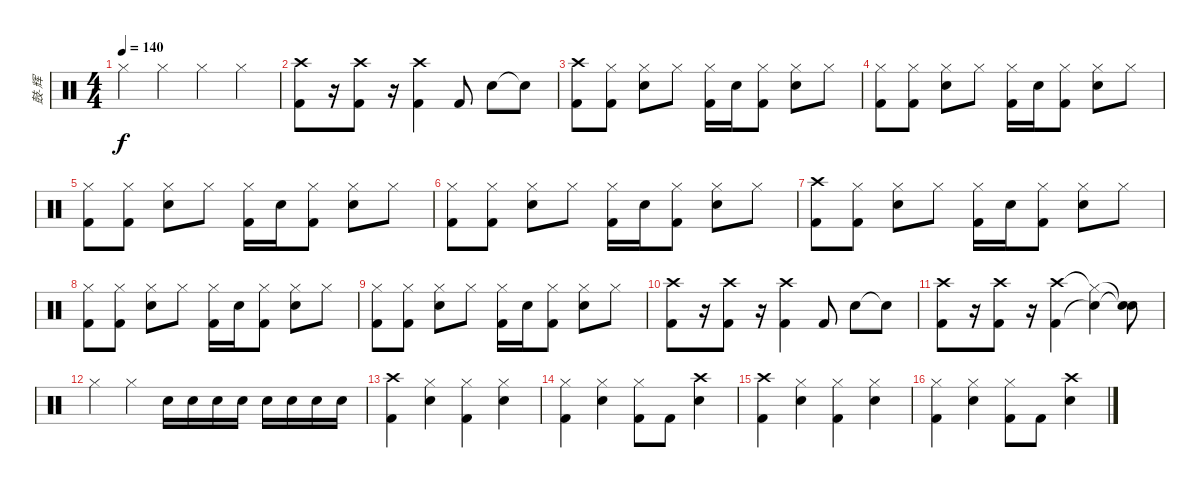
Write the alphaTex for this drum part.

\track ("鼓-辉" "鼓-辉") {instrument percussion}
\staff {score}
\articulation defaults
\ts (4 4)
\tempo 140
\clef neutral
\ks c "Hi-Hat (closed)".4{dy f} "Hi-Hat (closed)".4 "Hi-Hat (closed)".4 "Hi-Hat (closed)".4
|
("Crash high (hit)" "Kick (hit) 2").8 r.16 ("Crash high (hit)" "Kick (hit) 2").8 r.16 ("Crash high (hit)" "Kick (hit) 2").4 "Kick (hit) 2".8 "Snare (hit) 2".8 "Snare (hit) 2"{t}.8 |
("Crash high (hit)" "Kick (hit) 2").8 ("Hi-Hat (closed)" "Kick (hit) 2").8 ("Hi-Hat (closed)" "Snare (hit) 2").8 "Hi-Hat (closed)".8 ("Hi-Hat (closed)" "Kick (hit) 2").16 "Snare (hit) 2".16 ("Hi-Hat (closed)" "Kick (hit) 2").8 ("Hi-Hat (closed)" "Snare (hit) 2").8 "Hi-Hat (closed)".8 |
("Hi-Hat (closed)" "Kick (hit) 2").8 ("Hi-Hat (closed)" "Kick (hit) 2").8 ("Hi-Hat (closed)" "Snare (hit) 2").8 "Hi-Hat (closed)".8 ("Hi-Hat (closed)" "Kick (hit) 2").16 "Snare (hit) 2".16 ("Hi-Hat (closed)" "Kick (hit) 2").8 ("Hi-Hat (closed)" "Snare (hit) 2").8 "Hi-Hat (closed)".8 |
("Hi-Hat (closed)" "Kick (hit) 2").8 ("Hi-Hat (closed)" "Kick (hit) 2").8 ("Hi-Hat (closed)" "Snare (hit) 2").8 "Hi-Hat (closed)".8 ("Hi-Hat (closed)" "Kick (hit) 2").16 "Snare (hit) 2".16 ("Hi-Hat (closed)" "Kick (hit) 2").8 ("Hi-Hat (closed)" "Snare (hit) 2").8 "Hi-Hat (closed)".8 |
("Hi-Hat (closed)" "Kick (hit) 2").8 ("Hi-Hat (closed)" "Kick (hit) 2").8 ("Hi-Hat (closed)" "Snare (hit) 2").8 "Hi-Hat (closed)".8 ("Hi-Hat (closed)" "Kick (hit) 2").16 "Snare (hit) 2".16 ("Hi-Hat (closed)" "Kick (hit) 2").8 ("Hi-Hat (closed)" "Snare (hit) 2").8 "Hi-Hat (closed)".8 |
("Crash high (hit)" "Kick (hit) 2").8 ("Hi-Hat (closed)" "Kick (hit) 2").8 ("Hi-Hat (closed)" "Snare (hit) 2").8 "Hi-Hat (closed)".8 ("Hi-Hat (closed)" "Kick (hit) 2").16 "Snare (hit) 2".16 ("Hi-Hat (closed)" "Kick (hit) 2").8 ("Hi-Hat (closed)" "Snare (hit) 2").8 "Hi-Hat (closed)".8 |
("Hi-Hat (closed)" "Kick (hit) 2").8 ("Hi-Hat (closed)" "Kick (hit) 2").8 ("Hi-Hat (closed)" "Snare (hit) 2").8 "Hi-Hat (closed)".8 ("Hi-Hat (closed)" "Kick (hit) 2").16 "Snare (hit) 2".16 ("Hi-Hat (closed)" "Kick (hit) 2").8 ("Hi-Hat (closed)" "Snare (hit) 2").8 "Hi-Hat (closed)".8 |
("Hi-Hat (closed)" "Kick (hit) 2").8 ("Hi-Hat (closed)" "Kick (hit) 2").8 ("Hi-Hat (closed)" "Snare (hit) 2").8 "Hi-Hat (closed)".8 ("Hi-Hat (closed)" "Kick (hit) 2").16 "Snare (hit) 2".16 ("Hi-Hat (closed)" "Kick (hit) 2").8 ("Hi-Hat (closed)" "Snare (hit) 2").8 "Hi-Hat (closed)".8 |
("Crash high (hit)" "Kick (hit) 2").8 r.16 ("Crash high (hit)" "Kick (hit) 2").8 r.16 ("Crash high (hit)" "Kick (hit) 2").4 "Kick (hit) 2".8 "Snare (hit) 2".8 "Snare (hit) 2"{t}.8 |
("Crash high (hit)" "Kick (hit) 2").8 r.16 ("Crash high (hit)" "Kick (hit) 2").8 r.16 ("Crash high (hit)" "Kick (hit) 2").4 ("Hi-Hat (closed)"{t} "Snare (hit)"{t}).4 ("Snare (hit)"{t} "Snare (hit)"{t}).8 |
"Hi-Hat (closed)".4 "Hi-Hat (closed)".4 "Snare (hit) 2".16 "Snare (hit) 2".16 "Snare (hit) 2".16 "Snare (hit) 2".16 "Snare (hit) 2".16 "Snare (hit) 2".16 "Snare (hit) 2".16 "Snare (hit) 2".16 |
("Crash high (hit)" "Kick (hit) 2").4 ("Hi-Hat (closed)" "Snare (hit) 2").4 ("Hi-Hat (closed)" "Kick (hit) 2").4 ("Hi-Hat (closed)" "Snare (hit) 2").4 |
("Hi-Hat (closed)" "Kick (hit) 2").4 ("Hi-Hat (closed)" "Snare (hit) 2").4 ("Hi-Hat (closed)" "Kick (hit) 2").8 "Kick (hit) 2".8 ("Crash high (hit)" "Snare (hit) 2").4 |
("Crash high (hit)" "Kick (hit) 2").4 ("Hi-Hat (closed)" "Snare (hit) 2").4 ("Hi-Hat (closed)" "Kick (hit) 2").4 ("Hi-Hat (closed)" "Snare (hit) 2").4 |
("Hi-Hat (closed)" "Kick (hit) 2").4 ("Hi-Hat (closed)" "Snare (hit) 2").4 ("Hi-Hat (closed)" "Kick (hit) 2").8 "Kick (hit) 2".8 ("Crash high (hit)" "Snare (hit) 2").4
